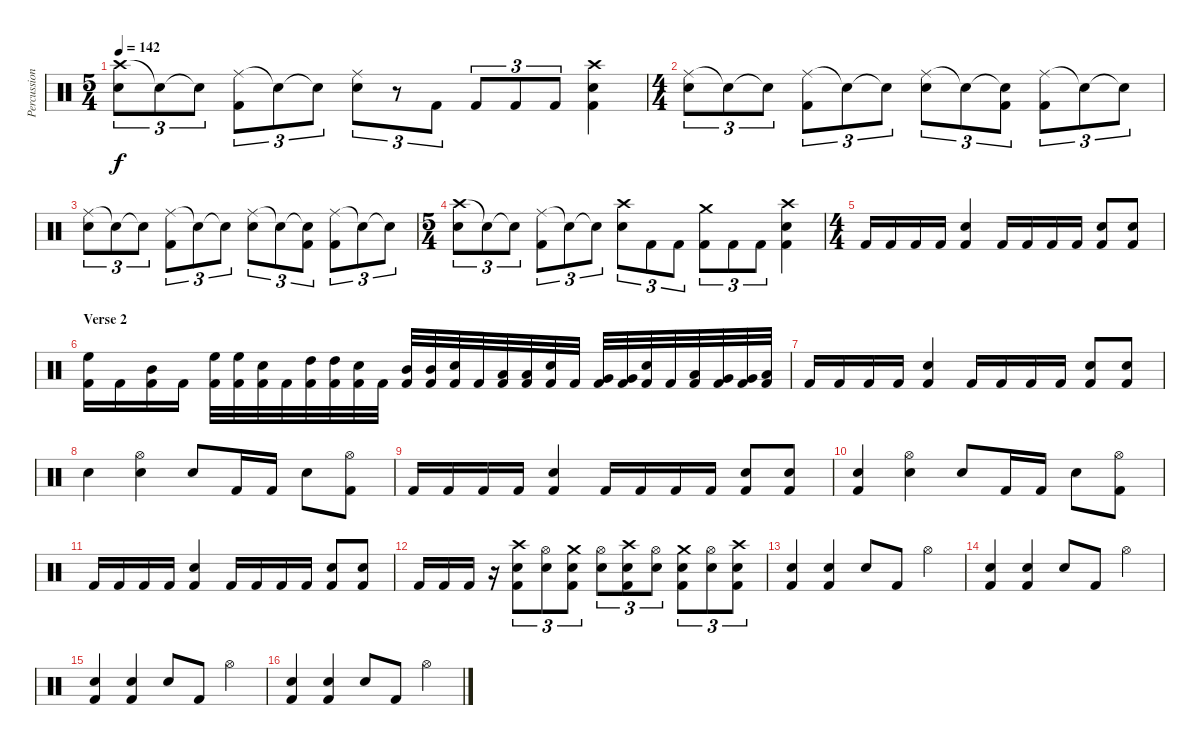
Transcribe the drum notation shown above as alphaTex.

\track ("Percussion" "Percussion") {instrument percussion}
\staff {score}
\articulation defaults
\ts (5 4)
\tempo 142
\clef neutral
\ks c
("Crash high (hit)" "Snare (hit) 2").8{tu (3 2) dy f} "Snare (hit)"{t}.8{tu (3 2)} "Snare (hit)"{t}.8{tu (3 2)} ("Ride (middle)" "Kick (hit) 2").8{tu (3 2)} "Snare (hit)"{t}.8{tu (3 2)} "Snare (hit)"{t}.8{tu (3 2)} ("Ride (middle)" "Snare (hit) 2").8{tu (3 2)} r.8{tu (3 2)} "Kick (hit) 2".8{tu (3 2)} "Kick (hit) 2".8{tu (3 2)} "Kick (hit) 2".8{tu (3 2)} "Kick (hit) 2".8{tu (3 2)} ("Crash high (hit)" "Snare (hit) 2" "Kick (hit) 2").4 |
\ts (4 4)
("Ride (middle)" "Snare (hit) 2").8{tu (3 2)} "Snare (hit)"{t}.8{tu (3 2)} "Snare (hit)"{t}.8{tu (3 2)} ("Ride (middle)" "Kick (hit) 2").8{tu (3 2)} "Snare (hit)"{t}.8{tu (3 2)} "Snare (hit)"{t}.8{tu (3 2)} ("Ride (middle)" "Snare (hit) 2").8{tu (3 2)} "Snare (hit)"{t}.8{tu (3 2)} ("Snare (hit)"{t} "Kick (hit) 2").8{tu (3 2)} ("Ride (middle)" "Kick (hit) 2").8{tu (3 2)} "Snare (hit)"{t}.8{tu (3 2)} "Snare (hit)"{t}.8{tu (3 2)} |
("Ride (middle)" "Snare (hit) 2").8{tu (3 2)} "Snare (hit)"{t}.8{tu (3 2)} "Snare (hit)"{t}.8{tu (3 2)} ("Ride (middle)" "Kick (hit) 2").8{tu (3 2)} "Snare (hit)"{t}.8{tu (3 2)} "Snare (hit)"{t}.8{tu (3 2)} ("Ride (middle)" "Snare (hit) 2").8{tu (3 2)} "Snare (hit)"{t}.8{tu (3 2)} ("Snare (hit)"{t} "Kick (hit) 2").8{tu (3 2)} ("Ride (middle)" "Kick (hit) 2").8{tu (3 2)} "Snare (hit)"{t}.8{tu (3 2)} "Snare (hit)"{t}.8{tu (3 2)} |
\ts (5 4)
("Crash high (hit)" "Snare (hit) 2").8{tu (3 2)} "Snare (hit)"{t}.8{tu (3 2)} "Snare (hit)"{t}.8{tu (3 2)} ("Ride (middle)" "Kick (hit) 2").8{tu (3 2)} "Snare (hit)"{t}.8{tu (3 2)} "Snare (hit)"{t}.8{tu (3 2)} ("Crash high (hit)" "Snare (hit) 2").8{tu (3 2)} "Kick (hit) 2".8{tu (3 2)} "Kick (hit) 2".8{tu (3 2)} ("Crash medium (hit)" "Kick (hit) 2").8{tu (3 2)} "Kick (hit) 2".8{tu (3 2)} "Kick (hit) 2".8{tu (3 2)} ("Crash high (hit)" "Snare (hit) 2" "Kick (hit) 2").4 |
\ts (4 4)
"Kick (hit) 2".16 "Kick (hit) 2".16 "Kick (hit) 2".16 "Kick (hit) 2".16 ("Snare (hit) 2" "Kick (hit) 2").4 "Kick (hit) 2".16 "Kick (hit) 2".16 "Kick (hit) 2".16 "Kick (hit) 2".16 ("Snare (hit) 2" "Kick (hit) 2").8 ("Snare (hit) 2" "Kick (hit) 2").8 |
\section ("" "Verse 2")
("High Floor Tom (hit)" "Kick (hit) 2").16 "Kick (hit) 2".16 ("Mid Tom (hit)" "Kick (hit) 2").16 "Kick (hit) 2".16 ("High Floor Tom (hit)" "Kick (hit) 2").32 ("High Floor Tom (hit)" "Kick (hit) 2").32 ("Snare (hit) 2" "Kick (hit) 2").32 "Kick (hit) 2".32 ("High Tom (hit)" "Kick (hit) 2").32 ("High Tom (hit)" "Kick (hit) 2").32 ("Snare (hit) 2" "Kick (hit) 2").32 "Kick (hit) 2".32 ("Mid Tom (hit)" "Kick (hit) 2").32 ("Mid Tom (hit)" "Kick (hit) 2").32 ("Snare (hit) 2" "Kick (hit) 2").32 "Kick (hit) 2".32 ("Low Tom (hit)" "Kick (hit) 2").32 ("Low Tom (hit)" "Kick (hit) 2").32 ("Snare (hit) 2" "Kick (hit) 2").32 "Kick (hit) 2".32 ("Very Low Tom (hit)" "Kick (hit) 2").32 ("Very Low Tom (hit)" "Kick (hit) 2").32 ("Snare (hit) 2" "Kick (hit) 2").32 "Kick (hit) 2".32 ("Low Tom (hit)" "Kick (hit) 2").32 ("Very Low Tom (hit)" "Kick (hit) 2").32 ("Very Low Tom (hit)" "Kick (hit) 2").32 ("Low Floor Tom (hit)" "Kick (hit) 2").32 |
"Kick (hit) 2".16 "Kick (hit) 2".16 "Kick (hit) 2".16 "Kick (hit) 2".16 ("Snare (hit) 2" "Kick (hit) 2").4 "Kick (hit) 2".16 "Kick (hit) 2".16 "Kick (hit) 2".16 "Kick (hit) 2".16 ("Snare (hit) 2" "Kick (hit) 2").8 ("Snare (hit) 2" "Kick (hit) 2").8 |
"Snare (hit) 2".4 ("Snare (hit) 2" "Hi-Hat (open)").4 "Snare (hit) 2".8 "Kick (hit) 2".16 "Kick (hit) 2".16 "Snare (hit) 2".8 ("Hi-Hat (open)" "Kick (hit) 2").8 |
"Kick (hit) 2".16 "Kick (hit) 2".16 "Kick (hit) 2".16 "Kick (hit) 2".16 ("Snare (hit) 2" "Kick (hit) 2").4 "Kick (hit) 2".16 "Kick (hit) 2".16 "Kick (hit) 2".16 "Kick (hit) 2".16 ("Snare (hit) 2" "Kick (hit) 2").8 ("Snare (hit) 2" "Kick (hit) 2").8 |
("Snare (hit) 2" "Kick (hit) 2").4 ("Snare (hit) 2" "Hi-Hat (open)").4 "Snare (hit) 2".8 "Kick (hit) 2".16 "Kick (hit) 2".16 "Snare (hit) 2".8 ("Hi-Hat (open)" "Kick (hit) 2").8 |
"Kick (hit) 2".16 "Kick (hit) 2".16 "Kick (hit) 2".16 "Kick (hit) 2".16 ("Snare (hit) 2" "Kick (hit) 2").4 "Kick (hit) 2".16 "Kick (hit) 2".16 "Kick (hit) 2".16 "Kick (hit) 2".16 ("Snare (hit) 2" "Kick (hit) 2").8 ("Snare (hit) 2" "Kick (hit) 2").8 |
"Kick (hit) 2".16 "Kick (hit) 2".16 "Kick (hit) 2".16 r.16 ("Crash high (hit)" "Electric Snare (hit)" "Kick (hit) 2").8{tu (3 2)} ("Hi-Hat (open)" "Snare (hit)").8{tu (3 2)} ("Crash medium (hit)" "Electric Snare (hit)" "Kick (hit) 2").8{tu (3 2)} ("Hi-Hat (open)" "Snare (hit)").8{tu (3 2)} ("Crash high (hit)" "Electric Snare (hit)" "Kick (hit) 2").8{tu (3 2)} ("Hi-Hat (open)" "Snare (hit)").8{tu (3 2)} ("Crash medium (hit)" "Electric Snare (hit)" "Kick (hit) 2").8{tu (3 2)} ("Hi-Hat (open)" "Snare (hit)").8{tu (3 2)} ("Crash high (hit)" "Electric Snare (hit)" "Kick (hit) 2").8{tu (3 2)} |
("Snare (hit) 2" "Kick (hit) 2").4 ("Snare (hit) 2" "Kick (hit) 2").4 "Snare (hit) 2".8 "Kick (hit) 2".8 "Hi-Hat (open)".4 |
("Snare (hit) 2" "Kick (hit) 2").4 ("Snare (hit) 2" "Kick (hit) 2").4 "Snare (hit) 2".8 "Kick (hit) 2".8 "Hi-Hat (open)".4 |
("Snare (hit) 2" "Kick (hit) 2").4 ("Snare (hit) 2" "Kick (hit) 2").4 "Snare (hit) 2".8 "Kick (hit) 2".8 "Hi-Hat (open)".4 |
("Snare (hit) 2" "Kick (hit) 2").4 ("Snare (hit) 2" "Kick (hit) 2").4 "Snare (hit) 2".8 "Kick (hit) 2".8 "Hi-Hat (open)".4
